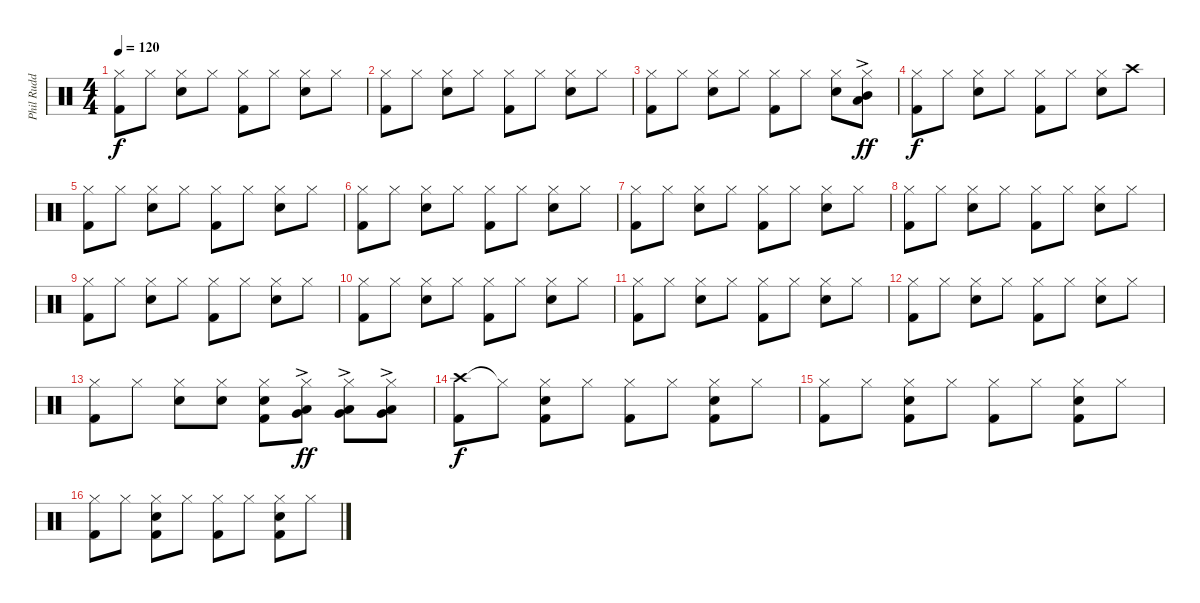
\track ("Phil Rudd" "Phil Rudd") {instrument percussion}
\staff {score}
\articulation defaults
\ts (4 4)
\tempo 120
\clef neutral
\ks c
("Hi-Hat (closed)" "Kick (hit) 2").8{dy f} "Hi-Hat (closed)".8 ("Hi-Hat (closed)" "Snare (hit) 2").8 "Hi-Hat (closed)".8 ("Hi-Hat (closed)" "Kick (hit) 2").8 "Hi-Hat (closed)".8 ("Hi-Hat (closed)" "Snare (hit) 2").8 "Hi-Hat (closed)".8 |
("Hi-Hat (closed)" "Kick (hit) 2").8 "Hi-Hat (closed)".8 ("Hi-Hat (closed)" "Snare (hit) 2").8 "Hi-Hat (closed)".8 ("Hi-Hat (closed)" "Kick (hit) 2").8 "Hi-Hat (closed)".8 ("Hi-Hat (closed)" "Snare (hit) 2").8 "Hi-Hat (closed)".8 |
("Hi-Hat (closed)" "Kick (hit) 2").8 "Hi-Hat (closed)".8 ("Hi-Hat (closed)" "Snare (hit) 2").8 "Hi-Hat (closed)".8 ("Hi-Hat (closed)" "Kick (hit) 2").8 "Hi-Hat (closed)".8 ("Hi-Hat (closed)" "Snare (hit) 2").8 ("Hi-Hat (closed)" "Low Tom (hit)"{ac} "Mid Tom (hit)").8{dy ff} |
("Hi-Hat (closed)" "Kick (hit) 2").8{dy f} "Hi-Hat (closed)".8 ("Hi-Hat (closed)" "Snare (hit) 2").8 "Hi-Hat (closed)".8 ("Hi-Hat (closed)" "Kick (hit) 2").8 "Hi-Hat (closed)".8 ("Hi-Hat (closed)" "Snare (hit) 2").8 "Crash high (hit)".8 |
("Hi-Hat (closed)" "Kick (hit) 2").8 "Hi-Hat (closed)".8 ("Hi-Hat (closed)" "Snare (hit) 2").8 "Hi-Hat (closed)".8 ("Hi-Hat (closed)" "Kick (hit) 2").8 "Hi-Hat (closed)".8 ("Hi-Hat (closed)" "Snare (hit) 2").8 "Hi-Hat (closed)".8 |
("Hi-Hat (closed)" "Kick (hit) 2").8 "Hi-Hat (closed)".8 ("Hi-Hat (closed)" "Snare (hit) 2").8 "Hi-Hat (closed)".8 ("Hi-Hat (closed)" "Kick (hit) 2").8 "Hi-Hat (closed)".8 ("Hi-Hat (closed)" "Snare (hit) 2").8 "Hi-Hat (closed)".8 |
("Hi-Hat (closed)" "Kick (hit) 2").8 "Hi-Hat (closed)".8 ("Hi-Hat (closed)" "Snare (hit) 2").8 "Hi-Hat (closed)".8 ("Hi-Hat (closed)" "Kick (hit) 2").8 "Hi-Hat (closed)".8 ("Hi-Hat (closed)" "Snare (hit) 2").8 "Hi-Hat (closed)".8 |
("Hi-Hat (closed)" "Kick (hit) 2").8 "Hi-Hat (closed)".8 ("Hi-Hat (closed)" "Snare (hit) 2").8 "Hi-Hat (closed)".8 ("Hi-Hat (closed)" "Kick (hit) 2").8 "Hi-Hat (closed)".8 ("Hi-Hat (closed)" "Snare (hit) 2").8 "Hi-Hat (closed)".8 |
("Hi-Hat (closed)" "Kick (hit) 2").8 "Hi-Hat (closed)".8 ("Hi-Hat (closed)" "Snare (hit) 2").8 "Hi-Hat (closed)".8 ("Hi-Hat (closed)" "Kick (hit) 2").8 "Hi-Hat (closed)".8 ("Hi-Hat (closed)" "Snare (hit) 2").8 "Hi-Hat (closed)".8 |
("Hi-Hat (closed)" "Kick (hit) 2").8 "Hi-Hat (closed)".8 ("Hi-Hat (closed)" "Snare (hit) 2").8 "Hi-Hat (closed)".8 ("Hi-Hat (closed)" "Kick (hit) 2").8 "Hi-Hat (closed)".8 ("Hi-Hat (closed)" "Snare (hit) 2").8 "Hi-Hat (closed)".8 |
("Hi-Hat (closed)" "Kick (hit) 2").8 "Hi-Hat (closed)".8 ("Hi-Hat (closed)" "Snare (hit) 2").8 "Hi-Hat (closed)".8 ("Hi-Hat (closed)" "Kick (hit) 2").8 "Hi-Hat (closed)".8 ("Hi-Hat (closed)" "Snare (hit) 2").8 "Hi-Hat (closed)".8 |
("Hi-Hat (closed)" "Kick (hit) 2").8 "Hi-Hat (closed)".8 ("Hi-Hat (closed)" "Snare (hit) 2").8 "Hi-Hat (closed)".8 ("Hi-Hat (closed)" "Kick (hit) 2").8 "Hi-Hat (closed)".8 ("Hi-Hat (closed)" "Snare (hit) 2").8 "Hi-Hat (closed)".8 |
("Hi-Hat (closed)" "Kick (hit) 2").8 "Hi-Hat (closed)".8 ("Hi-Hat (closed)" "Snare (hit) 2").8 ("Hi-Hat (closed)" "Snare (hit) 2").8 ("Hi-Hat (closed)" "Snare (hit) 2" "Kick (hit) 2").8 ("Hi-Hat (closed)" "Very Low Tom (hit)"{ac} "Low Tom (hit)").8{dy ff balance 16} ("Hi-Hat (closed)" "Very Low Tom (hit)"{ac} "Low Tom (hit)").8{balance 8} ("Hi-Hat (closed)" "Low Tom (hit)"{ac} "Very Low Tom (hit)").8{balance 0} |
("Crash high (hit)" "Kick (hit) 2").8{dy f balance 8} "Hi-Hat (closed)"{t}.8 ("Hi-Hat (closed)" "Snare (hit) 2" "Kick (hit) 2").8 "Hi-Hat (closed)".8 ("Hi-Hat (closed)" "Kick (hit) 2").8 "Hi-Hat (closed)".8 ("Hi-Hat (closed)" "Snare (hit) 2" "Kick (hit) 2").8 "Hi-Hat (closed)".8 |
("Hi-Hat (closed)" "Kick (hit) 2").8 "Hi-Hat (closed)".8 ("Hi-Hat (closed)" "Snare (hit) 2" "Kick (hit) 2").8 "Hi-Hat (closed)".8 ("Hi-Hat (closed)" "Kick (hit) 2").8 "Hi-Hat (closed)".8 ("Hi-Hat (closed)" "Snare (hit) 2" "Kick (hit) 2").8 "Hi-Hat (closed)".8 |
("Hi-Hat (closed)" "Kick (hit) 2").8 "Hi-Hat (closed)".8 ("Hi-Hat (closed)" "Snare (hit) 2" "Kick (hit) 2").8 "Hi-Hat (closed)".8 ("Hi-Hat (closed)" "Kick (hit) 2").8 "Hi-Hat (closed)".8 ("Hi-Hat (closed)" "Snare (hit) 2" "Kick (hit) 2").8 "Hi-Hat (closed)".8
